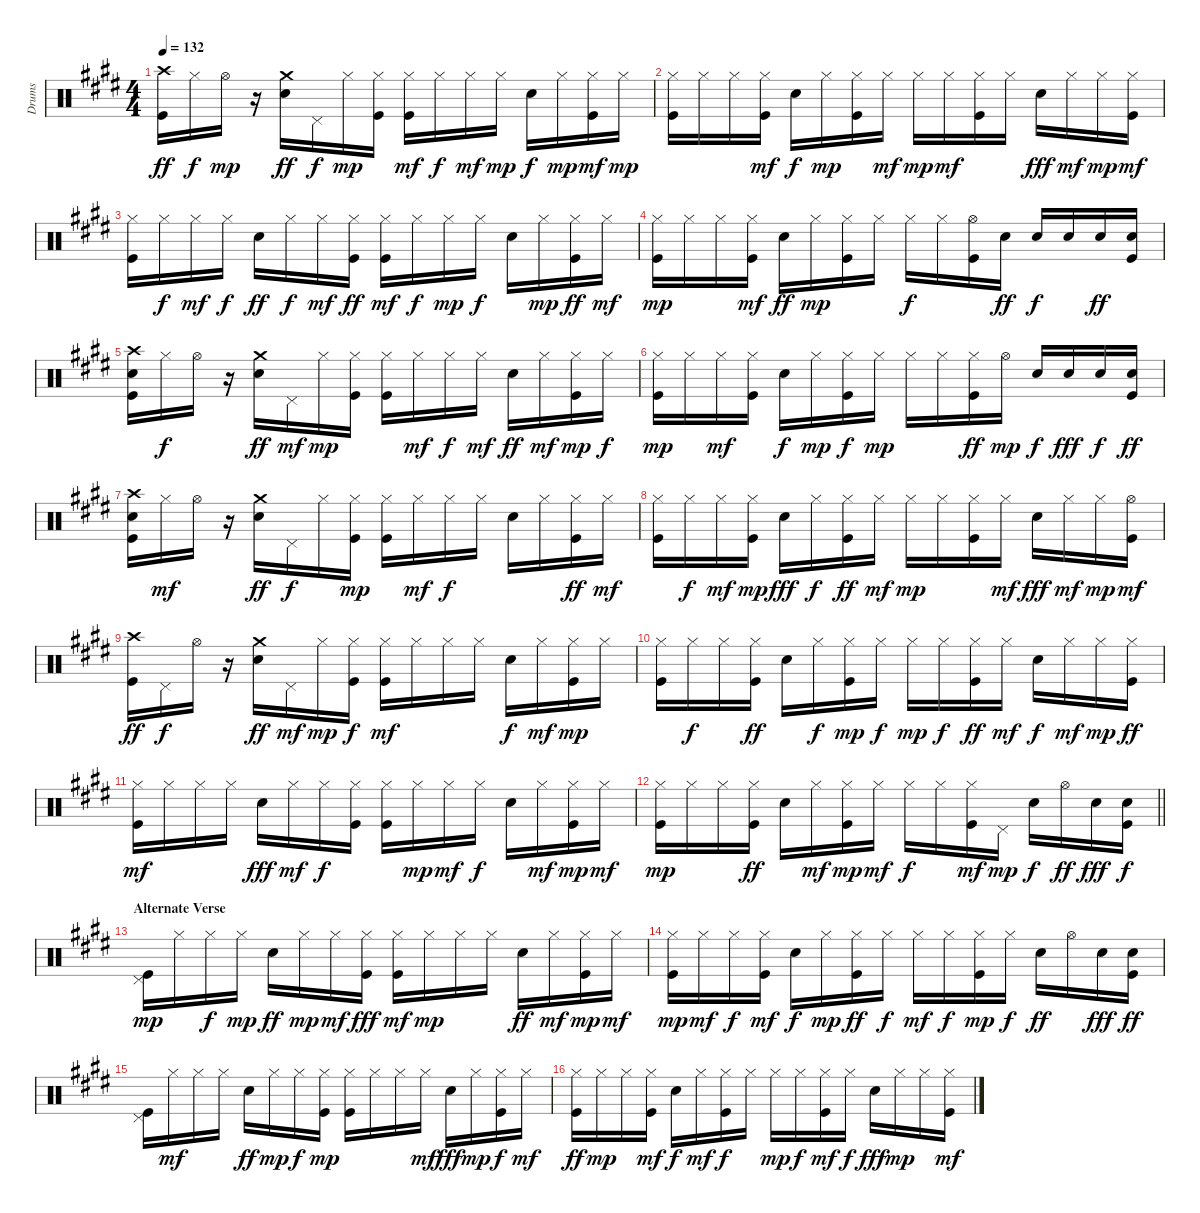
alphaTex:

\track ("Drums" "Drums") {instrument percussion}
\staff {score}
\articulation defaults
\ts (4 4)
\tempo 132
\clef neutral
\ks e
("Kick (hit)" "Crash high (hit)").16{dy ff} "Hi-Hat (closed)".16{dy f} "Hi-Hat (open)".16{dy mp} r.16 ("Snare (hit) 2" "Crash medium (hit)").16{dy ff} "Pedal Hi-Hat (hit)".16{dy f} "Hi-Hat (closed)".16{dy mp} ("Kick (hit)" "Hi-Hat (closed)").16 ("Kick (hit)" "Hi-Hat (closed)").16{dy mf} "Hi-Hat (closed)".16{dy f} "Hi-Hat (closed)".16{dy mf} "Hi-Hat (closed)".16{dy mp} "Snare (hit) 2".16{dy f} "Hi-Hat (closed)".16{dy mp} ("Kick (hit)" "Hi-Hat (closed)").16{dy mf} "Hi-Hat (closed)".16{dy mp} |
("Kick (hit)" "Hi-Hat (closed)").16 "Hi-Hat (closed)".16 "Hi-Hat (closed)".16 ("Kick (hit)" "Hi-Hat (closed)").16{dy mf} "Snare (hit) 2".16{dy f} "Hi-Hat (closed)".16{dy mp} ("Kick (hit)" "Hi-Hat (closed)").16 "Hi-Hat (closed)".16{dy mf} "Hi-Hat (closed)".16{dy mp} "Hi-Hat (closed)".16{dy mf} ("Kick (hit)" "Hi-Hat (closed)").16 "Hi-Hat (closed)".16 "Snare (hit) 2".16{dy fff} "Hi-Hat (closed)".16{dy mf} "Hi-Hat (closed)".16{dy mp} ("Kick (hit)" "Hi-Hat (closed)").16{dy mf} |
("Kick (hit)" "Hi-Hat (closed)").16 "Hi-Hat (closed)".16{dy f} "Hi-Hat (closed)".16{dy mf} "Hi-Hat (closed)".16{dy f} "Snare (hit) 2".16{dy ff} "Hi-Hat (closed)".16{dy f} "Hi-Hat (closed)".16{dy mf} ("Kick (hit)" "Hi-Hat (closed)").16{dy ff} ("Kick (hit)" "Hi-Hat (closed)").16{dy mf} "Hi-Hat (closed)".16{dy f} "Hi-Hat (closed)".16{dy mp} "Hi-Hat (closed)".16{dy f} "Snare (hit) 2".16 "Hi-Hat (closed)".16{dy mp} ("Kick (hit)" "Hi-Hat (closed)").16{dy ff} "Hi-Hat (closed)".16{dy mf} |
("Kick (hit)" "Hi-Hat (closed)").16{dy mp} "Hi-Hat (closed)".16 "Hi-Hat (closed)".16 ("Kick (hit)" "Hi-Hat (closed)").16{dy mf} "Snare (hit) 2".16{dy ff} "Hi-Hat (closed)".16{dy mp} ("Kick (hit)" "Hi-Hat (closed)").16 "Hi-Hat (closed)".16 "Hi-Hat (closed)".16{dy f} "Hi-Hat (closed)".16 ("Kick (hit)" "Hi-Hat (open)").16 "Snare (hit) 2".16{dy ff} "Snare (hit) 2".16{dy f} "Snare (hit) 2".16 "Snare (hit) 2".16{dy ff} ("Kick (hit)" "Snare (hit) 2").16 |
("Kick (hit)" "Snare (hit) 2" "Crash high (hit)").16 "Hi-Hat (closed)".16{dy f} "Hi-Hat (open)".16 r.16 ("Snare (hit) 2" "Crash medium (hit)").16{dy ff} "Pedal Hi-Hat (hit)".16{dy mf} "Hi-Hat (closed)".16{dy mp} ("Kick (hit)" "Hi-Hat (closed)").16 ("Kick (hit)" "Hi-Hat (closed)").16 "Hi-Hat (closed)".16{dy mf} "Hi-Hat (closed)".16{dy f} "Hi-Hat (closed)".16{dy mf} "Snare (hit) 2".16{dy ff} "Hi-Hat (closed)".16{dy mf} ("Kick (hit)" "Hi-Hat (closed)").16{dy mp} "Hi-Hat (closed)".16{dy f} |
("Kick (hit)" "Hi-Hat (closed)").16{dy mp} "Hi-Hat (closed)".16 "Hi-Hat (closed)".16{dy mf} ("Kick (hit)" "Hi-Hat (closed)").16 "Snare (hit) 2".16{dy f} "Hi-Hat (closed)".16{dy mp} ("Kick (hit)" "Hi-Hat (closed)").16{dy f} "Hi-Hat (closed)".16{dy mp} "Hi-Hat (closed)".16 "Hi-Hat (closed)".16 ("Kick (hit)" "Hi-Hat (closed)").16{dy ff} "Hi-Hat (open)".16{dy mp} "Snare (hit) 2".16{dy f} "Snare (hit) 2".16{dy fff} "Snare (hit) 2".16{dy f} ("Kick (hit)" "Snare (hit) 2").16{dy ff} |
("Kick (hit)" "Snare (hit) 2" "Crash high (hit)").16 "Hi-Hat (closed)".16{dy mf} "Hi-Hat (open)".16 r.16 ("Snare (hit) 2" "Crash medium (hit)").16{dy ff} "Pedal Hi-Hat (hit)".16{dy f} "Hi-Hat (closed)".16 ("Kick (hit)" "Hi-Hat (closed)").16{dy mp} ("Kick (hit)" "Hi-Hat (closed)").16 "Hi-Hat (closed)".16{dy mf} "Hi-Hat (closed)".16{dy f} "Hi-Hat (closed)".16 "Snare (hit) 2".16 "Hi-Hat (closed)".16 ("Kick (hit)" "Hi-Hat (closed)").16{dy ff} "Hi-Hat (closed)".16{dy mf} |
("Kick (hit)" "Hi-Hat (closed)").16 "Hi-Hat (closed)".16{dy f} "Hi-Hat (closed)".16{dy mf} ("Kick (hit)" "Hi-Hat (closed)").16{dy mp} "Snare (hit) 2".16{dy fff} "Hi-Hat (closed)".16{dy f} ("Kick (hit)" "Hi-Hat (closed)").16{dy ff} "Hi-Hat (closed)".16{dy mf} "Hi-Hat (closed)".16{dy mp} "Hi-Hat (closed)".16 ("Kick (hit)" "Hi-Hat (closed)").16 "Hi-Hat (closed)".16{dy mf} "Snare (hit) 2".16{dy fff} "Hi-Hat (closed)".16{dy mf} "Hi-Hat (closed)".16{dy mp} ("Kick (hit)" "Hi-Hat (open)").16{dy mf} |
("Kick (hit)" "Crash high (hit)").16{dy ff} "Pedal Hi-Hat (hit)".16{dy f} "Hi-Hat (open)".16 r.16 ("Snare (hit) 2" "Crash medium (hit)").16{dy ff} "Pedal Hi-Hat (hit)".16{dy mf} "Hi-Hat (closed)".16{dy mp} ("Kick (hit)" "Hi-Hat (closed)").16{dy f} ("Kick (hit)" "Hi-Hat (closed)").16{dy mf} "Hi-Hat (closed)".16 "Hi-Hat (closed)".16 "Hi-Hat (closed)".16 "Snare (hit) 2".16{dy f} "Hi-Hat (closed)".16{dy mf} ("Kick (hit)" "Hi-Hat (closed)").16{dy mp} "Hi-Hat (closed)".16 |
("Kick (hit)" "Hi-Hat (closed)").16 "Hi-Hat (closed)".16{dy f} "Hi-Hat (closed)".16 ("Kick (hit)" "Hi-Hat (closed)").16{dy ff} "Snare (hit) 2".16 "Hi-Hat (closed)".16{dy f} ("Kick (hit)" "Hi-Hat (closed)").16{dy mp} "Hi-Hat (closed)".16{dy f} "Hi-Hat (closed)".16{dy mp} "Hi-Hat (closed)".16{dy f} ("Kick (hit)" "Hi-Hat (closed)").16{dy ff} "Hi-Hat (closed)".16{dy mf} "Snare (hit) 2".16{dy f} "Hi-Hat (closed)".16{dy mf} "Hi-Hat (closed)".16{dy mp} ("Kick (hit)" "Hi-Hat (closed)").16{dy ff} |
("Kick (hit)" "Hi-Hat (closed)").16{dy mf} "Hi-Hat (closed)".16 "Hi-Hat (closed)".16 "Hi-Hat (closed)".16 "Snare (hit) 2".16{dy fff} "Hi-Hat (closed)".16{dy mf} "Hi-Hat (closed)".16{dy f} ("Kick (hit)" "Hi-Hat (closed)").16 ("Kick (hit)" "Hi-Hat (closed)").16 "Hi-Hat (closed)".16{dy mp} "Hi-Hat (closed)".16{dy mf} "Hi-Hat (closed)".16{dy f} "Snare (hit) 2".16 "Hi-Hat (closed)".16{dy mf} ("Kick (hit)" "Hi-Hat (closed)").16{dy mp} "Hi-Hat (closed)".16{dy mf} |
\barLineRight lightlight
("Kick (hit)" "Hi-Hat (closed)").16{dy mp} "Hi-Hat (closed)".16 "Hi-Hat (closed)".16 ("Kick (hit)" "Hi-Hat (closed)").16{dy ff} "Snare (hit) 2".16 "Hi-Hat (closed)".16{dy mf} ("Kick (hit)" "Hi-Hat (closed)").16{dy mp} "Hi-Hat (closed)".16{dy mf} "Hi-Hat (closed)".16{dy f} "Hi-Hat (closed)".16 ("Kick (hit)" "Hi-Hat (closed)").16{dy mf} "Pedal Hi-Hat (hit)".16{dy mp} "Snare (hit) 2".16{dy f} "Hi-Hat (open)".16{dy ff} "Snare (hit) 2".16{dy fff} ("Kick (hit)" "Snare (hit) 2").16{dy f} |
\section ("" "Alternate Verse")
("Kick (hit)" "Pedal Hi-Hat (hit)").16{dy mp} "Hi-Hat (closed)".16 "Hi-Hat (closed)".16{dy f} "Hi-Hat (closed)".16{dy mp} "Snare (hit) 2".16{dy ff} "Hi-Hat (closed)".16{dy mp} "Hi-Hat (closed)".16{dy mf} ("Kick (hit)" "Hi-Hat (closed)").16{dy fff} ("Kick (hit)" "Hi-Hat (closed)").16{dy mf} "Hi-Hat (closed)".16{dy mp} "Hi-Hat (closed)".16 "Hi-Hat (closed)".16 "Snare (hit) 2".16{dy ff} "Hi-Hat (closed)".16{dy mf} ("Kick (hit)" "Hi-Hat (closed)").16{dy mp} "Hi-Hat (closed)".16{dy mf} |
("Kick (hit)" "Hi-Hat (closed)").16{dy mp} "Hi-Hat (closed)".16{dy mf} "Hi-Hat (closed)".16{dy f} ("Kick (hit)" "Hi-Hat (closed)").16{dy mf} "Snare (hit) 2".16{dy f} "Hi-Hat (closed)".16{dy mp} ("Kick (hit)" "Hi-Hat (closed)").16{dy ff} "Hi-Hat (closed)".16{dy f} "Hi-Hat (closed)".16{dy mf} "Hi-Hat (closed)".16{dy f} ("Kick (hit)" "Hi-Hat (closed)").16{dy mp} "Hi-Hat (closed)".16{dy f} "Snare (hit) 2".16{dy ff} "Hi-Hat (open)".16 "Snare (hit) 2".16{dy fff} ("Kick (hit)" "Snare (hit) 2").16{dy ff} |
("Kick (hit)" "Pedal Hi-Hat (hit)").16 "Hi-Hat (closed)".16{dy mf} "Hi-Hat (closed)".16 "Hi-Hat (closed)".16 "Snare (hit) 2".16{dy ff} "Hi-Hat (closed)".16{dy mp} "Hi-Hat (closed)".16{dy f} ("Kick (hit)" "Hi-Hat (closed)").16{dy mp} ("Kick (hit)" "Hi-Hat (closed)").16 "Hi-Hat (closed)".16 "Hi-Hat (closed)".16 "Hi-Hat (closed)".16{dy mf} "Snare (hit) 2".16{dy fff} "Hi-Hat (closed)".16{dy mp} ("Kick (hit)" "Hi-Hat (closed)").16{dy f} "Hi-Hat (closed)".16{dy mf} |
("Kick (hit)" "Hi-Hat (closed)").16{dy ff} "Hi-Hat (closed)".16{dy mp} "Hi-Hat (closed)".16 ("Kick (hit)" "Hi-Hat (closed)").16{dy mf} "Snare (hit) 2".16{dy f} "Hi-Hat (closed)".16{dy mf} ("Kick (hit)" "Hi-Hat (closed)").16{dy f} "Hi-Hat (closed)".16 "Hi-Hat (closed)".16{dy mp} "Hi-Hat (closed)".16{dy f} ("Kick (hit)" "Hi-Hat (closed)").16{dy mf} "Hi-Hat (closed)".16{dy f} "Snare (hit) 2".16{dy fff} "Hi-Hat (closed)".16{dy mp} "Hi-Hat (closed)".16 ("Kick (hit)" "Hi-Hat (closed)").16{dy mf}
